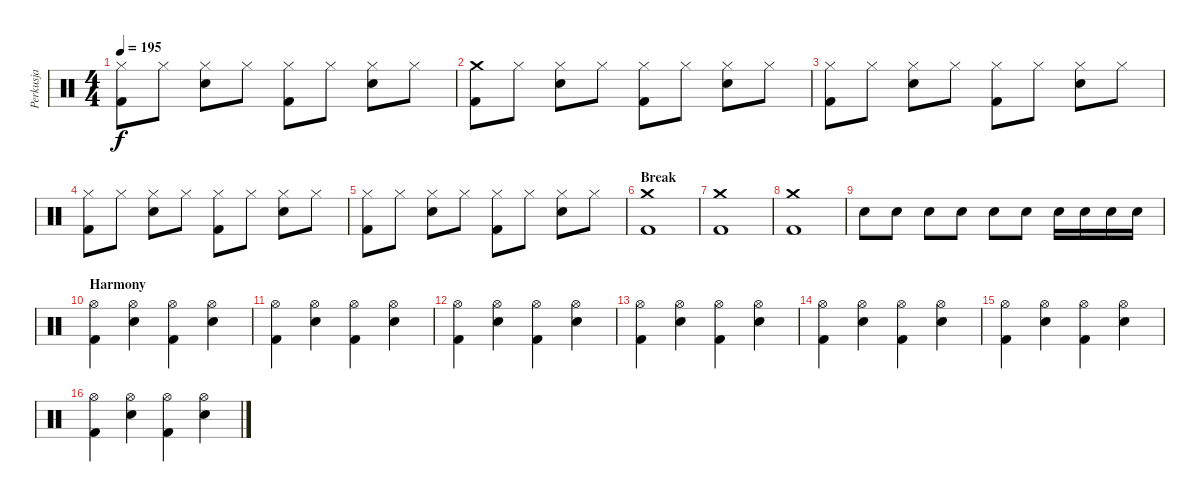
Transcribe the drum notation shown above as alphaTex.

\track ("Perkusja" "Perkusja") {instrument percussion}
\staff {score}
\articulation defaults
\ts (4 4)
\tempo 195
\clef neutral
\ks c
("Hi-Hat (closed)" "Kick (hit) 2").8{dy f} "Hi-Hat (closed)".8 ("Hi-Hat (closed)" "Snare (hit) 2").8 "Hi-Hat (closed)".8 ("Hi-Hat (closed)" "Kick (hit) 2").8 "Hi-Hat (closed)".8 ("Hi-Hat (closed)" "Snare (hit) 2").8 "Hi-Hat (closed)".8 |
("Crash medium (hit)" "Kick (hit) 2").8 "Hi-Hat (closed)".8 ("Hi-Hat (closed)" "Snare (hit) 2").8 "Hi-Hat (closed)".8 ("Hi-Hat (closed)" "Kick (hit) 2").8 "Hi-Hat (closed)".8 ("Hi-Hat (closed)" "Snare (hit) 2").8 "Hi-Hat (closed)".8 |
("Hi-Hat (closed)" "Kick (hit) 2").8 "Hi-Hat (closed)".8 ("Hi-Hat (closed)" "Snare (hit) 2").8 "Hi-Hat (closed)".8 ("Hi-Hat (closed)" "Kick (hit) 2").8 "Hi-Hat (closed)".8 ("Hi-Hat (closed)" "Snare (hit) 2").8 "Hi-Hat (closed)".8 |
("Hi-Hat (closed)" "Kick (hit) 2").8 "Hi-Hat (closed)".8 ("Hi-Hat (closed)" "Snare (hit) 2").8 "Hi-Hat (closed)".8 ("Hi-Hat (closed)" "Kick (hit) 2").8 "Hi-Hat (closed)".8 ("Hi-Hat (closed)" "Snare (hit) 2").8 "Hi-Hat (closed)".8 |
("Hi-Hat (closed)" "Kick (hit) 2").8 "Hi-Hat (closed)".8 ("Hi-Hat (closed)" "Snare (hit) 2").8 "Hi-Hat (closed)".8 ("Hi-Hat (closed)" "Kick (hit) 2").8 "Hi-Hat (closed)".8 ("Hi-Hat (closed)" "Snare (hit) 2").8 "Hi-Hat (closed)".8 |
\section ("" "Break")
("Crash medium (hit)" "Kick (hit) 2").1 |
("Crash medium (hit)" "Kick (hit) 2").1 |
("Crash medium (hit)" "Kick (hit) 2").1 |
"Snare (hit) 2".8 "Snare (hit) 2".8 "Snare (hit) 2".8 "Snare (hit) 2".8 "Snare (hit) 2".8 "Snare (hit) 2".8 "Snare (hit) 2".16 "Snare (hit) 2".16 "Snare (hit) 2".16 "Snare (hit) 2".16 |
\section ("" "Harmony")
("Hi-Hat (open)" "Kick (hit) 2").4 ("Hi-Hat (open)" "Snare (hit) 2").4 ("Hi-Hat (open)" "Kick (hit) 2").4 ("Hi-Hat (open)" "Snare (hit) 2").4 |
("Hi-Hat (open)" "Kick (hit) 2").4 ("Hi-Hat (open)" "Snare (hit) 2").4 ("Hi-Hat (open)" "Kick (hit) 2").4 ("Hi-Hat (open)" "Snare (hit) 2").4 |
("Hi-Hat (open)" "Kick (hit) 2").4 ("Hi-Hat (open)" "Snare (hit) 2").4 ("Hi-Hat (open)" "Kick (hit) 2").4 ("Hi-Hat (open)" "Snare (hit) 2").4 |
("Hi-Hat (open)" "Kick (hit) 2").4 ("Hi-Hat (open)" "Snare (hit) 2").4 ("Hi-Hat (open)" "Kick (hit) 2").4 ("Hi-Hat (open)" "Snare (hit) 2").4 |
("Hi-Hat (open)" "Kick (hit) 2").4 ("Hi-Hat (open)" "Snare (hit) 2").4 ("Hi-Hat (open)" "Kick (hit) 2").4 ("Hi-Hat (open)" "Snare (hit) 2").4 |
("Hi-Hat (open)" "Kick (hit) 2").4 ("Hi-Hat (open)" "Snare (hit) 2").4 ("Hi-Hat (open)" "Kick (hit) 2").4 ("Hi-Hat (open)" "Snare (hit) 2").4 |
("Hi-Hat (open)" "Kick (hit) 2").4 ("Hi-Hat (open)" "Snare (hit) 2").4 ("Hi-Hat (open)" "Kick (hit) 2").4 ("Hi-Hat (open)" "Snare (hit) 2").4
